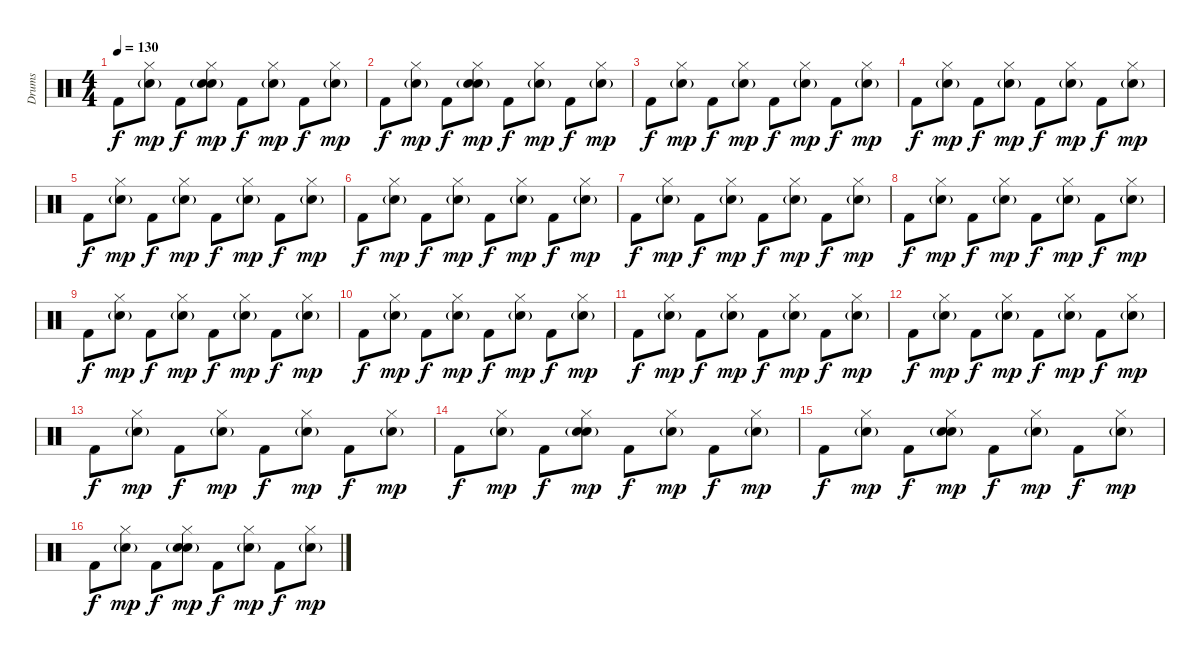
\track ("Drums" "Drums") {instrument percussion}
\staff {score}
\articulation defaults
\ts (4 4)
\tempo 130
\clef neutral
\ks c "Kick (hit) 2".8{dy f}
("Hi-Hat (closed)" "Hand Clap (hit)"{g}).8{dy mp} "Kick (hit) 2".8{dy f} ("Hi-Hat (closed)" "Hand Clap (hit)"{g} "Electric Snare (hit)").8{dy mp} "Kick (hit) 2".8{dy f} ("Hi-Hat (closed)" "Hand Clap (hit)"{g}).8{dy mp} "Kick (hit) 2".8{dy f} ("Hi-Hat (closed)" "Hand Clap (hit)"{g}).8{dy mp} |
"Kick (hit) 2".8{dy f} ("Hi-Hat (closed)" "Hand Clap (hit)"{g}).8{dy mp} "Kick (hit) 2".8{dy f} ("Hi-Hat (closed)" "Hand Clap (hit)"{g} "Electric Snare (hit)").8{dy mp} "Kick (hit) 2".8{dy f} ("Hi-Hat (closed)" "Hand Clap (hit)"{g}).8{dy mp} "Kick (hit) 2".8{dy f} ("Hi-Hat (closed)" "Hand Clap (hit)"{g}).8{dy mp} |
"Kick (hit) 2".8{dy f} ("Hi-Hat (closed)" "Hand Clap (hit)"{g}).8{dy mp} "Kick (hit) 2".8{dy f} ("Hi-Hat (closed)" "Hand Clap (hit)"{g}).8{dy mp} "Kick (hit) 2".8{dy f} ("Hi-Hat (closed)" "Hand Clap (hit)"{g}).8{dy mp} "Kick (hit) 2".8{dy f} ("Hi-Hat (closed)" "Hand Clap (hit)"{g}).8{dy mp} |
"Kick (hit) 2".8{dy f} ("Hi-Hat (closed)" "Hand Clap (hit)"{g}).8{dy mp} "Kick (hit) 2".8{dy f} ("Hi-Hat (closed)" "Hand Clap (hit)"{g}).8{dy mp} "Kick (hit) 2".8{dy f} ("Hi-Hat (closed)" "Hand Clap (hit)"{g}).8{dy mp} "Kick (hit) 2".8{dy f} ("Hi-Hat (closed)" "Hand Clap (hit)"{g}).8{dy mp} |
"Kick (hit) 2".8{dy f} ("Hi-Hat (closed)" "Hand Clap (hit)"{g}).8{dy mp} "Kick (hit) 2".8{dy f} ("Hi-Hat (closed)" "Hand Clap (hit)"{g}).8{dy mp} "Kick (hit) 2".8{dy f} ("Hi-Hat (closed)" "Hand Clap (hit)"{g}).8{dy mp} "Kick (hit) 2".8{dy f} ("Hi-Hat (closed)" "Hand Clap (hit)"{g}).8{dy mp} |
"Kick (hit) 2".8{dy f} ("Hi-Hat (closed)" "Hand Clap (hit)"{g}).8{dy mp} "Kick (hit) 2".8{dy f} ("Hi-Hat (closed)" "Hand Clap (hit)"{g}).8{dy mp} "Kick (hit) 2".8{dy f} ("Hi-Hat (closed)" "Hand Clap (hit)"{g}).8{dy mp} "Kick (hit) 2".8{dy f} ("Hi-Hat (closed)" "Hand Clap (hit)"{g}).8{dy mp} |
"Kick (hit) 2".8{dy f} ("Hi-Hat (closed)" "Hand Clap (hit)"{g}).8{dy mp} "Kick (hit) 2".8{dy f} ("Hi-Hat (closed)" "Hand Clap (hit)"{g}).8{dy mp} "Kick (hit) 2".8{dy f} ("Hi-Hat (closed)" "Hand Clap (hit)"{g}).8{dy mp} "Kick (hit) 2".8{dy f} ("Hi-Hat (closed)" "Hand Clap (hit)"{g}).8{dy mp} |
"Kick (hit) 2".8{dy f} ("Hi-Hat (closed)" "Hand Clap (hit)"{g}).8{dy mp} "Kick (hit) 2".8{dy f} ("Hi-Hat (closed)" "Hand Clap (hit)"{g}).8{dy mp} "Kick (hit) 2".8{dy f} ("Hi-Hat (closed)" "Hand Clap (hit)"{g}).8{dy mp} "Kick (hit) 2".8{dy f} ("Hi-Hat (closed)" "Hand Clap (hit)"{g}).8{dy mp} |
"Kick (hit) 2".8{dy f} ("Hi-Hat (closed)" "Hand Clap (hit)"{g}).8{dy mp} "Kick (hit) 2".8{dy f} ("Hi-Hat (closed)" "Hand Clap (hit)"{g}).8{dy mp} "Kick (hit) 2".8{dy f} ("Hi-Hat (closed)" "Hand Clap (hit)"{g}).8{dy mp} "Kick (hit) 2".8{dy f} ("Hi-Hat (closed)" "Hand Clap (hit)"{g}).8{dy mp} |
"Kick (hit) 2".8{dy f} ("Hi-Hat (closed)" "Hand Clap (hit)"{g}).8{dy mp} "Kick (hit) 2".8{dy f} ("Hi-Hat (closed)" "Hand Clap (hit)"{g}).8{dy mp} "Kick (hit) 2".8{dy f} ("Hi-Hat (closed)" "Hand Clap (hit)"{g}).8{dy mp} "Kick (hit) 2".8{dy f} ("Hi-Hat (closed)" "Hand Clap (hit)"{g}).8{dy mp} |
"Kick (hit) 2".8{dy f} ("Hi-Hat (closed)" "Hand Clap (hit)"{g}).8{dy mp} "Kick (hit) 2".8{dy f} ("Hi-Hat (closed)" "Hand Clap (hit)"{g}).8{dy mp} "Kick (hit) 2".8{dy f} ("Hi-Hat (closed)" "Hand Clap (hit)"{g}).8{dy mp} "Kick (hit) 2".8{dy f} ("Hi-Hat (closed)" "Hand Clap (hit)"{g}).8{dy mp} |
"Kick (hit) 2".8{dy f} ("Hi-Hat (closed)" "Hand Clap (hit)"{g}).8{dy mp} "Kick (hit) 2".8{dy f} ("Hi-Hat (closed)" "Hand Clap (hit)"{g}).8{dy mp} "Kick (hit) 2".8{dy f} ("Hi-Hat (closed)" "Hand Clap (hit)"{g}).8{dy mp} "Kick (hit) 2".8{dy f} ("Hi-Hat (closed)" "Hand Clap (hit)"{g}).8{dy mp} |
"Kick (hit) 2".8{dy f} ("Hi-Hat (closed)" "Hand Clap (hit)"{g}).8{dy mp} "Kick (hit) 2".8{dy f} ("Hi-Hat (closed)" "Hand Clap (hit)"{g}).8{dy mp} "Kick (hit) 2".8{dy f} ("Hi-Hat (closed)" "Hand Clap (hit)"{g}).8{dy mp} "Kick (hit) 2".8{dy f} ("Hi-Hat (closed)" "Hand Clap (hit)"{g}).8{dy mp} |
"Kick (hit) 2".8{dy f} ("Hi-Hat (closed)" "Hand Clap (hit)"{g}).8{dy mp} "Kick (hit) 2".8{dy f} ("Hi-Hat (closed)" "Hand Clap (hit)"{g} "Electric Snare (hit)").8{dy mp} "Kick (hit) 2".8{dy f} ("Hi-Hat (closed)" "Hand Clap (hit)"{g}).8{dy mp} "Kick (hit) 2".8{dy f} ("Hi-Hat (closed)" "Hand Clap (hit)"{g}).8{dy mp} |
"Kick (hit) 2".8{dy f} ("Hi-Hat (closed)" "Hand Clap (hit)"{g}).8{dy mp} "Kick (hit) 2".8{dy f} ("Hi-Hat (closed)" "Hand Clap (hit)"{g} "Electric Snare (hit)").8{dy mp} "Kick (hit) 2".8{dy f} ("Hi-Hat (closed)" "Hand Clap (hit)"{g}).8{dy mp} "Kick (hit) 2".8{dy f} ("Hi-Hat (closed)" "Hand Clap (hit)"{g}).8{dy mp} |
"Kick (hit) 2".8{dy f} ("Hi-Hat (closed)" "Hand Clap (hit)"{g}).8{dy mp} "Kick (hit) 2".8{dy f} ("Hi-Hat (closed)" "Hand Clap (hit)"{g} "Electric Snare (hit)").8{dy mp} "Kick (hit) 2".8{dy f} ("Hi-Hat (closed)" "Hand Clap (hit)"{g}).8{dy mp} "Kick (hit) 2".8{dy f} ("Hi-Hat (closed)" "Hand Clap (hit)"{g}).8{dy mp}
